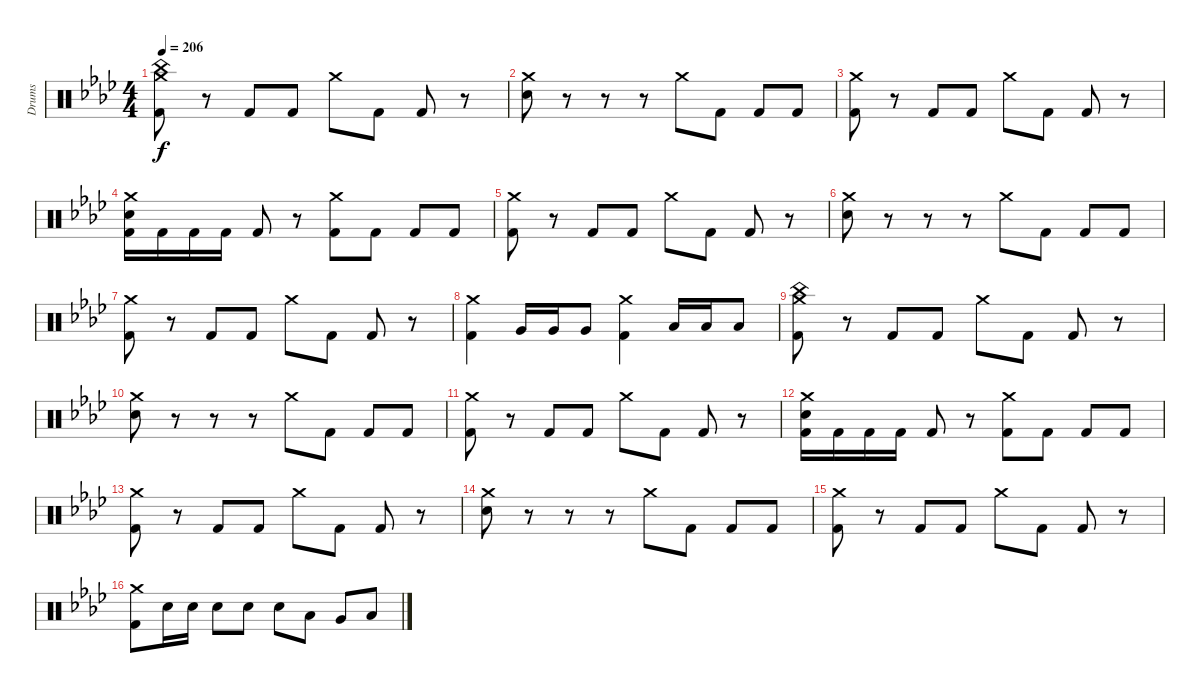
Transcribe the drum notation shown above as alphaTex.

\track ("Drums" "Drums") {instrument percussion}
\staff {score}
\articulation defaults
\ts (4 4)
\tempo 206
\clef neutral
\ks fminor
("Crash medium (hit)" "China (hit)" "Kick (hit) 2").8{dy f} r.8 "Kick (hit) 2".8 "Kick (hit) 2".8 "Crash medium (hit)".8 "Kick (hit) 2".8 "Kick (hit) 2".8 r.8 |
("Crash medium (hit)" "Electric Snare (hit)").8 r.8 r.8 r.8 "Crash medium (hit)".8 "Kick (hit) 2".8 "Kick (hit) 2".8 "Kick (hit) 2".8 |
("Crash medium (hit)" "Kick (hit) 2").8 r.8 "Kick (hit) 2".8 "Kick (hit) 2".8 "Crash medium (hit)".8 "Kick (hit) 2".8 "Kick (hit) 2".8 r.8 |
("Crash medium (hit)" "Electric Snare (hit)" "Kick (hit) 2").16 "Kick (hit) 2".16 "Kick (hit) 2".16 "Kick (hit) 2".16 "Kick (hit) 2".8 r.8 ("Crash medium (hit)" "Kick (hit) 2").8 "Kick (hit) 2".8 "Kick (hit) 2".8 "Kick (hit) 2".8 |
("Crash medium (hit)" "Kick (hit) 2").8 r.8 "Kick (hit) 2".8 "Kick (hit) 2".8 "Crash medium (hit)".8 "Kick (hit) 2".8 "Kick (hit) 2".8 r.8 |
("Crash medium (hit)" "Electric Snare (hit)").8 r.8 r.8 r.8 "Crash medium (hit)".8 "Kick (hit) 2".8 "Kick (hit) 2".8 "Kick (hit) 2".8 |
("Crash medium (hit)" "Kick (hit) 2").8 r.8 "Kick (hit) 2".8 "Kick (hit) 2".8 "Crash medium (hit)".8 "Kick (hit) 2".8 "Kick (hit) 2".8 r.8 |
("Crash medium (hit)" "Kick (hit) 2").4 "Very Low Tom (hit)".16 "Very Low Tom (hit)".16 "Very Low Tom (hit)".8 ("Crash medium (hit)" "Kick (hit) 2").4 "Low Floor Tom (hit)".16 "Low Floor Tom (hit)".16 "Low Floor Tom (hit)".8 |
("Crash medium (hit)" "China (hit)" "Kick (hit) 2").8 r.8 "Kick (hit) 2".8 "Kick (hit) 2".8 "Crash medium (hit)".8 "Kick (hit) 2".8 "Kick (hit) 2".8 r.8 |
("Crash medium (hit)" "Electric Snare (hit)").8 r.8 r.8 r.8 "Crash medium (hit)".8 "Kick (hit) 2".8 "Kick (hit) 2".8 "Kick (hit) 2".8 |
("Crash medium (hit)" "Kick (hit) 2").8 r.8 "Kick (hit) 2".8 "Kick (hit) 2".8 "Crash medium (hit)".8 "Kick (hit) 2".8 "Kick (hit) 2".8 r.8 |
("Crash medium (hit)" "Electric Snare (hit)" "Kick (hit) 2").16 "Kick (hit) 2".16 "Kick (hit) 2".16 "Kick (hit) 2".16 "Kick (hit) 2".8 r.8 ("Crash medium (hit)" "Kick (hit) 2").8 "Kick (hit) 2".8 "Kick (hit) 2".8 "Kick (hit) 2".8 |
("Crash medium (hit)" "Kick (hit) 2").8 r.8 "Kick (hit) 2".8 "Kick (hit) 2".8 "Crash medium (hit)".8 "Kick (hit) 2".8 "Kick (hit) 2".8 r.8 |
("Crash medium (hit)" "Electric Snare (hit)").8 r.8 r.8 r.8 "Crash medium (hit)".8 "Kick (hit) 2".8 "Kick (hit) 2".8 "Kick (hit) 2".8 |
("Crash medium (hit)" "Kick (hit) 2").8 r.8 "Kick (hit) 2".8 "Kick (hit) 2".8 "Crash medium (hit)".8 "Kick (hit) 2".8 "Kick (hit) 2".8 r.8 |
("Crash medium (hit)" "Kick (hit) 2").8 "Electric Snare (hit)".16 "Electric Snare (hit)".16 "Electric Snare (hit)".8 "Electric Snare (hit)".8 "Electric Snare (hit)".8 "Low Tom (hit)".8 "Very Low Tom (hit)".8 "Low Floor Tom (hit)".8
